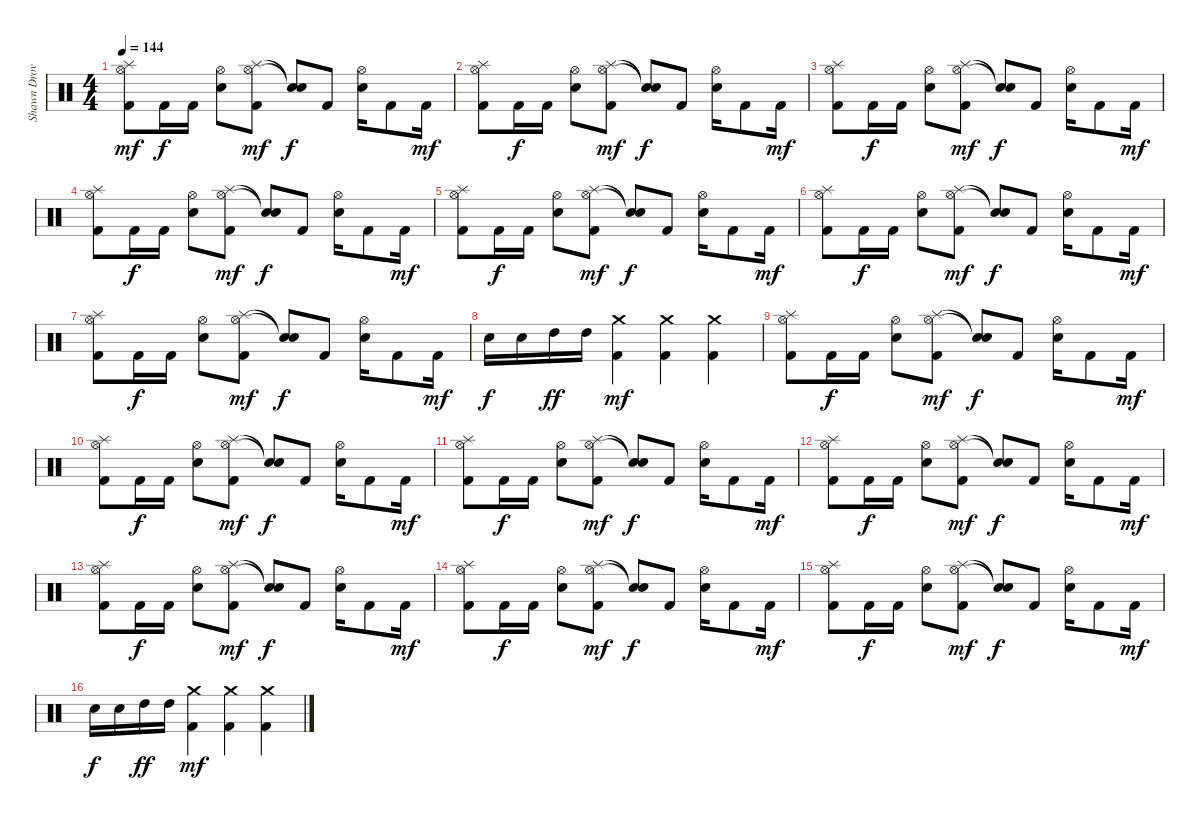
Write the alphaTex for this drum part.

\track ("Shawn Drover" "Shawn Drov") {instrument percussion}
\staff {score}
\articulation defaults
\ts (4 4)
\tempo 144
\clef neutral
\ks c
("Hi-Hat (open)" "Splash (hit)" "Kick (hit) 2").8{dy mf} "Kick (hit) 2".16{dy f} "Kick (hit) 2".16 ("Hi-Hat (open)" "Electric Snare (hit)").8 ("Hi-Hat (open)" "Splash (hit)" "Kick (hit) 2").8{dy mf} ("Snare (hit)"{t} "Snare (hit)"{t}).8{dy f} "Kick (hit) 2".8 ("Hi-Hat (open)" "Electric Snare (hit)").16 "Kick (hit) 2".8 "Kick (hit) 2".16{dy mf} |
("Hi-Hat (open)" "Splash (hit)" "Kick (hit) 2").8 "Kick (hit) 2".16{dy f} "Kick (hit) 2".16 ("Hi-Hat (open)" "Electric Snare (hit)").8 ("Hi-Hat (open)" "Splash (hit)" "Kick (hit) 2").8{dy mf} ("Snare (hit)"{t} "Snare (hit)"{t}).8{dy f} "Kick (hit) 2".8 ("Hi-Hat (open)" "Electric Snare (hit)").16 "Kick (hit) 2".8 "Kick (hit) 2".16{dy mf} |
("Hi-Hat (open)" "Splash (hit)" "Kick (hit) 2").8 "Kick (hit) 2".16{dy f} "Kick (hit) 2".16 ("Hi-Hat (open)" "Electric Snare (hit)").8 ("Hi-Hat (open)" "Splash (hit)" "Kick (hit) 2").8{dy mf} ("Snare (hit)"{t} "Snare (hit)"{t}).8{dy f} "Kick (hit) 2".8 ("Hi-Hat (open)" "Electric Snare (hit)").16 "Kick (hit) 2".8 "Kick (hit) 2".16{dy mf} |
("Hi-Hat (open)" "Splash (hit)" "Kick (hit) 2").8 "Kick (hit) 2".16{dy f} "Kick (hit) 2".16 ("Hi-Hat (open)" "Electric Snare (hit)").8 ("Hi-Hat (open)" "Splash (hit)" "Kick (hit) 2").8{dy mf} ("Snare (hit)"{t} "Snare (hit)"{t}).8{dy f} "Kick (hit) 2".8 ("Hi-Hat (open)" "Electric Snare (hit)").16 "Kick (hit) 2".8 "Kick (hit) 2".16{dy mf} |
("Hi-Hat (open)" "Splash (hit)" "Kick (hit) 2").8 "Kick (hit) 2".16{dy f} "Kick (hit) 2".16 ("Hi-Hat (open)" "Electric Snare (hit)").8 ("Hi-Hat (open)" "Splash (hit)" "Kick (hit) 2").8{dy mf} ("Snare (hit)"{t} "Snare (hit)"{t}).8{dy f} "Kick (hit) 2".8 ("Hi-Hat (open)" "Electric Snare (hit)").16 "Kick (hit) 2".8 "Kick (hit) 2".16{dy mf} |
("Hi-Hat (open)" "Splash (hit)" "Kick (hit) 2").8 "Kick (hit) 2".16{dy f} "Kick (hit) 2".16 ("Hi-Hat (open)" "Electric Snare (hit)").8 ("Hi-Hat (open)" "Splash (hit)" "Kick (hit) 2").8{dy mf} ("Snare (hit)"{t} "Snare (hit)"{t}).8{dy f} "Kick (hit) 2".8 ("Hi-Hat (open)" "Electric Snare (hit)").16 "Kick (hit) 2".8 "Kick (hit) 2".16{dy mf} |
("Hi-Hat (open)" "Splash (hit)" "Kick (hit) 2").8 "Kick (hit) 2".16{dy f} "Kick (hit) 2".16 ("Hi-Hat (open)" "Electric Snare (hit)").8 ("Hi-Hat (open)" "Splash (hit)" "Kick (hit) 2").8{dy mf} ("Snare (hit)"{t} "Snare (hit)"{t}).8{dy f} "Kick (hit) 2".8 ("Hi-Hat (open)" "Electric Snare (hit)").16 "Kick (hit) 2".8 "Kick (hit) 2".16{dy mf} |
"Snare (hit) 2".16{dy f} "Snare (hit) 2".16 "High Tom (hit)".16{dy ff} "High Tom (hit)".16 ("Crash medium (hit)" "Kick (hit) 2").4{dy mf} ("Crash medium (hit)" "Kick (hit) 2").4 ("Crash medium (hit)" "Kick (hit) 2").4 |
("Hi-Hat (open)" "Splash (hit)" "Kick (hit) 2").8 "Kick (hit) 2".16{dy f} "Kick (hit) 2".16 ("Hi-Hat (open)" "Electric Snare (hit)").8 ("Hi-Hat (open)" "Splash (hit)" "Kick (hit) 2").8{dy mf} ("Snare (hit)"{t} "Snare (hit)"{t}).8{dy f} "Kick (hit) 2".8 ("Hi-Hat (open)" "Electric Snare (hit)").16 "Kick (hit) 2".8 "Kick (hit) 2".16{dy mf} |
("Hi-Hat (open)" "Splash (hit)" "Kick (hit) 2").8 "Kick (hit) 2".16{dy f} "Kick (hit) 2".16 ("Hi-Hat (open)" "Electric Snare (hit)").8 ("Hi-Hat (open)" "Splash (hit)" "Kick (hit) 2").8{dy mf} ("Snare (hit)"{t} "Snare (hit)"{t}).8{dy f} "Kick (hit) 2".8 ("Hi-Hat (open)" "Electric Snare (hit)").16 "Kick (hit) 2".8 "Kick (hit) 2".16{dy mf} |
("Hi-Hat (open)" "Splash (hit)" "Kick (hit) 2").8 "Kick (hit) 2".16{dy f} "Kick (hit) 2".16 ("Hi-Hat (open)" "Electric Snare (hit)").8 ("Hi-Hat (open)" "Splash (hit)" "Kick (hit) 2").8{dy mf} ("Snare (hit)"{t} "Snare (hit)"{t}).8{dy f} "Kick (hit) 2".8 ("Hi-Hat (open)" "Electric Snare (hit)").16 "Kick (hit) 2".8 "Kick (hit) 2".16{dy mf} |
("Hi-Hat (open)" "Splash (hit)" "Kick (hit) 2").8 "Kick (hit) 2".16{dy f} "Kick (hit) 2".16 ("Hi-Hat (open)" "Electric Snare (hit)").8 ("Hi-Hat (open)" "Splash (hit)" "Kick (hit) 2").8{dy mf} ("Snare (hit)"{t} "Snare (hit)"{t}).8{dy f} "Kick (hit) 2".8 ("Hi-Hat (open)" "Electric Snare (hit)").16 "Kick (hit) 2".8 "Kick (hit) 2".16{dy mf} |
("Hi-Hat (open)" "Splash (hit)" "Kick (hit) 2").8 "Kick (hit) 2".16{dy f} "Kick (hit) 2".16 ("Hi-Hat (open)" "Electric Snare (hit)").8 ("Hi-Hat (open)" "Splash (hit)" "Kick (hit) 2").8{dy mf} ("Snare (hit)"{t} "Snare (hit)"{t}).8{dy f} "Kick (hit) 2".8 ("Hi-Hat (open)" "Electric Snare (hit)").16 "Kick (hit) 2".8 "Kick (hit) 2".16{dy mf} |
("Hi-Hat (open)" "Splash (hit)" "Kick (hit) 2").8 "Kick (hit) 2".16{dy f} "Kick (hit) 2".16 ("Hi-Hat (open)" "Electric Snare (hit)").8 ("Hi-Hat (open)" "Splash (hit)" "Kick (hit) 2").8{dy mf} ("Snare (hit)"{t} "Snare (hit)"{t}).8{dy f} "Kick (hit) 2".8 ("Hi-Hat (open)" "Electric Snare (hit)").16 "Kick (hit) 2".8 "Kick (hit) 2".16{dy mf} |
("Hi-Hat (open)" "Splash (hit)" "Kick (hit) 2").8 "Kick (hit) 2".16{dy f} "Kick (hit) 2".16 ("Hi-Hat (open)" "Electric Snare (hit)").8 ("Hi-Hat (open)" "Splash (hit)" "Kick (hit) 2").8{dy mf} ("Snare (hit)"{t} "Snare (hit)"{t}).8{dy f} "Kick (hit) 2".8 ("Hi-Hat (open)" "Electric Snare (hit)").16 "Kick (hit) 2".8 "Kick (hit) 2".16{dy mf} |
"Snare (hit) 2".16{dy f} "Snare (hit) 2".16 "High Tom (hit)".16{dy ff} "High Tom (hit)".16 ("Crash medium (hit)" "Kick (hit) 2").4{dy mf} ("Crash medium (hit)" "Kick (hit) 2").4 ("Crash medium (hit)" "Kick (hit) 2").4
